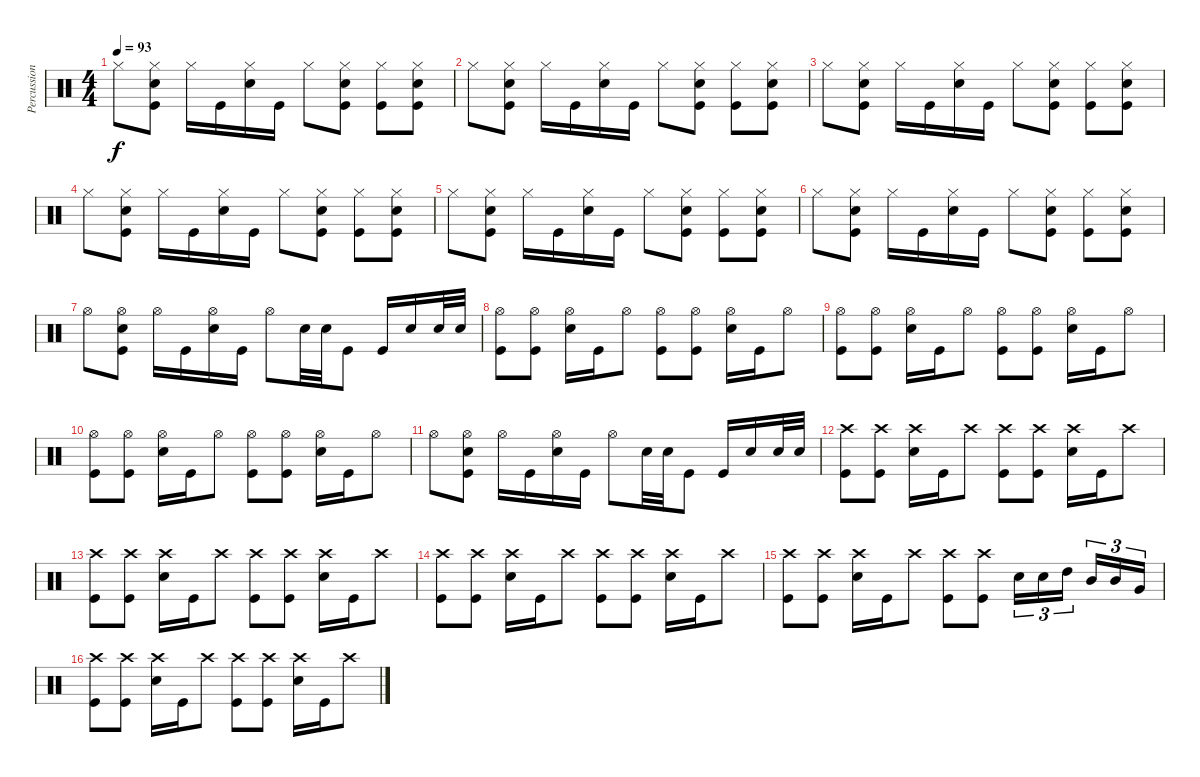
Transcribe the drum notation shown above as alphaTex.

\track ("Percussion" "Percussion") {instrument percussion}
\staff {score}
\articulation defaults
\ts (4 4)
\tempo 93
\clef neutral
\ks c "Hi-Hat (closed)".8{dy f}
("Hi-Hat (closed)" "Kick (hit)" "Snare (hit) 2").8 "Hi-Hat (closed)".16 "Kick (hit)".16 ("Hi-Hat (closed)" "Snare (hit) 2").16 "Kick (hit)".16 "Hi-Hat (closed)".8 ("Hi-Hat (closed)" "Kick (hit)" "Snare (hit) 2").8 ("Hi-Hat (closed)" "Kick (hit)").8 ("Hi-Hat (closed)" "Kick (hit)" "Snare (hit) 2").8 |
"Hi-Hat (closed)".8 ("Hi-Hat (closed)" "Kick (hit)" "Snare (hit) 2").8 "Hi-Hat (closed)".16 "Kick (hit)".16 ("Hi-Hat (closed)" "Snare (hit) 2").16 "Kick (hit)".16 "Hi-Hat (closed)".8 ("Hi-Hat (closed)" "Kick (hit)" "Snare (hit) 2").8 ("Hi-Hat (closed)" "Kick (hit)").8 ("Hi-Hat (closed)" "Kick (hit)" "Snare (hit) 2").8 |
"Hi-Hat (closed)".8 ("Hi-Hat (closed)" "Kick (hit)" "Snare (hit) 2").8 "Hi-Hat (closed)".16 "Kick (hit)".16 ("Hi-Hat (closed)" "Snare (hit) 2").16 "Kick (hit)".16 "Hi-Hat (closed)".8 ("Hi-Hat (closed)" "Kick (hit)" "Snare (hit) 2").8 ("Hi-Hat (closed)" "Kick (hit)").8 ("Hi-Hat (closed)" "Kick (hit)" "Snare (hit) 2").8 |
"Hi-Hat (closed)".8 ("Hi-Hat (closed)" "Kick (hit)" "Snare (hit) 2").8 "Hi-Hat (closed)".16 "Kick (hit)".16 ("Hi-Hat (closed)" "Snare (hit) 2").16 "Kick (hit)".16 "Hi-Hat (closed)".8 ("Hi-Hat (closed)" "Kick (hit)" "Snare (hit) 2").8 ("Hi-Hat (closed)" "Kick (hit)").8 ("Hi-Hat (closed)" "Kick (hit)" "Snare (hit) 2").8 |
"Hi-Hat (closed)".8 ("Hi-Hat (closed)" "Kick (hit)" "Snare (hit) 2").8 "Hi-Hat (closed)".16 "Kick (hit)".16 ("Hi-Hat (closed)" "Snare (hit) 2").16 "Kick (hit)".16 "Hi-Hat (closed)".8 ("Hi-Hat (closed)" "Kick (hit)" "Snare (hit) 2").8 ("Hi-Hat (closed)" "Kick (hit)").8 ("Hi-Hat (closed)" "Kick (hit)" "Snare (hit) 2").8 |
"Hi-Hat (closed)".8 ("Hi-Hat (closed)" "Kick (hit)" "Snare (hit) 2").8 "Hi-Hat (closed)".16 "Kick (hit)".16 ("Hi-Hat (closed)" "Snare (hit) 2").16 "Kick (hit)".16 "Hi-Hat (closed)".8 ("Hi-Hat (closed)" "Kick (hit)" "Snare (hit) 2").8 ("Hi-Hat (closed)" "Kick (hit)").8 ("Hi-Hat (closed)" "Kick (hit)" "Snare (hit) 2").8 |
"Hi-Hat (open)".8 ("Hi-Hat (open)" "Kick (hit)" "Snare (hit) 2").8 "Hi-Hat (open)".16 "Kick (hit)".16 ("Hi-Hat (open)" "Snare (hit) 2").16 "Kick (hit)".16 "Hi-Hat (open)".8 "Snare (hit) 2".32 "Snare (hit) 2".32 "Kick (hit)".8 "Kick (hit)".16 "Snare (hit) 2".16 "Snare (hit) 2".32 "Snare (hit) 2".32 |
("Hi-Hat (open)" "Kick (hit)").8 ("Hi-Hat (open)" "Kick (hit)").8 ("Hi-Hat (open)" "Snare (hit) 2").16 "Kick (hit)".16 "Hi-Hat (open)".8 ("Hi-Hat (open)" "Kick (hit)").8 ("Hi-Hat (open)" "Kick (hit)").8 ("Hi-Hat (open)" "Snare (hit) 2").16 "Kick (hit)".16 "Hi-Hat (open)".8 |
("Hi-Hat (open)" "Kick (hit)").8 ("Hi-Hat (open)" "Kick (hit)").8 ("Hi-Hat (open)" "Snare (hit) 2").16 "Kick (hit)".16 "Hi-Hat (open)".8 ("Hi-Hat (open)" "Kick (hit)").8 ("Hi-Hat (open)" "Kick (hit)").8 ("Hi-Hat (open)" "Snare (hit) 2").16 "Kick (hit)".16 "Hi-Hat (open)".8 |
("Hi-Hat (open)" "Kick (hit)").8 ("Hi-Hat (open)" "Kick (hit)").8 ("Hi-Hat (open)" "Snare (hit) 2").16 "Kick (hit)".16 "Hi-Hat (open)".8 ("Hi-Hat (open)" "Kick (hit)").8 ("Hi-Hat (open)" "Kick (hit)").8 ("Hi-Hat (open)" "Snare (hit) 2").16 "Kick (hit)".16 "Hi-Hat (open)".8 |
"Hi-Hat (open)".8 ("Hi-Hat (open)" "Kick (hit)" "Snare (hit) 2").8 "Hi-Hat (open)".16 "Kick (hit)".16 ("Hi-Hat (open)" "Snare (hit) 2").16 "Kick (hit)".16 "Hi-Hat (open)".8 "Snare (hit) 2".32 "Snare (hit) 2".32 "Kick (hit)".8 "Kick (hit)".16 "Snare (hit) 2".16 "Snare (hit) 2".32 "Snare (hit) 2".32 |
("Crash high (hit)" "Kick (hit)").8 ("Crash high (hit)" "Kick (hit)").8 ("Crash high (hit)" "Snare (hit) 2").16 "Kick (hit)".16 "Crash high (hit)".8 ("Crash high (hit)" "Kick (hit)").8 ("Crash high (hit)" "Kick (hit)").8 ("Crash high (hit)" "Snare (hit) 2").16 "Kick (hit)".16 "Crash high (hit)".8 |
("Crash high (hit)" "Kick (hit)").8 ("Crash high (hit)" "Kick (hit)").8 ("Crash high (hit)" "Snare (hit) 2").16 "Kick (hit)".16 "Crash high (hit)".8 ("Crash high (hit)" "Kick (hit)").8 ("Crash high (hit)" "Kick (hit)").8 ("Crash high (hit)" "Snare (hit) 2").16 "Kick (hit)".16 "Crash high (hit)".8 |
("Crash high (hit)" "Kick (hit)").8 ("Crash high (hit)" "Kick (hit)").8 ("Crash high (hit)" "Snare (hit) 2").16 "Kick (hit)".16 "Crash high (hit)".8 ("Crash high (hit)" "Kick (hit)").8 ("Crash high (hit)" "Kick (hit)").8 ("Crash high (hit)" "Snare (hit) 2").16 "Kick (hit)".16 "Crash high (hit)".8 |
("Crash high (hit)" "Kick (hit)").8 ("Crash high (hit)" "Kick (hit)").8 ("Crash high (hit)" "Snare (hit) 2").16 "Kick (hit)".16 "Crash high (hit)".8 ("Crash high (hit)" "Kick (hit)").8 ("Crash high (hit)" "Kick (hit)").8 "Snare (hit) 2".16{tu (3 2)} "Snare (hit) 2".16{tu (3 2)} "High Tom (hit)".16{tu (3 2) beam splitsecondary} "Mid Tom (hit)".16{tu (3 2)} "Mid Tom (hit)".16{tu (3 2)} "Very Low Tom (hit)".16{tu (3 2)} |
("Crash high (hit)" "Kick (hit)").8 ("Crash high (hit)" "Kick (hit)").8 ("Crash high (hit)" "Snare (hit) 2").16 "Kick (hit)".16 "Crash high (hit)".8 ("Crash high (hit)" "Kick (hit)").8 ("Crash high (hit)" "Kick (hit)").8 ("Crash high (hit)" "Snare (hit) 2").16 "Kick (hit)".16 "Crash high (hit)".8
